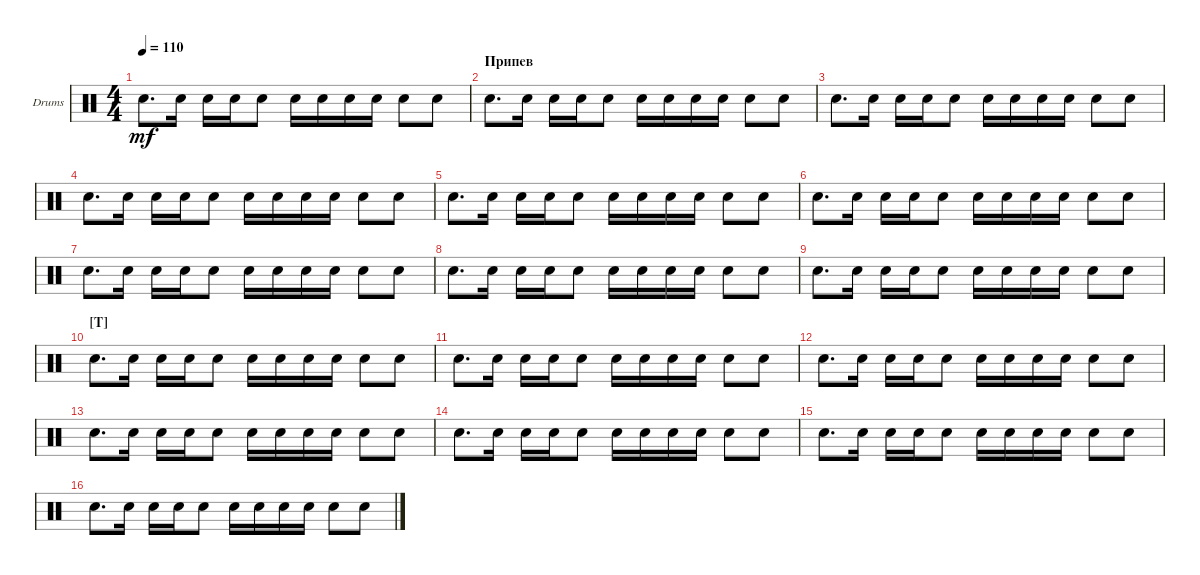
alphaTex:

\defaultSystemsLayout 4
\bracketExtendMode groupsimilarinstruments
\firstSystemTrackNameOrientation horizontal
\otherSystemsTrackNameOrientation horizontal
\track ("Drumkit" "Drums") {instrument percussion}
\staff {score}
\articulation defaults
\ts (4 4)
\tempo 110
\clef neutral
\ks c "Snare (hit) 2".8{d dy mf} "Snare (hit) 2".16 "Snare (hit) 2".16 "Snare (hit) 2".16 "Snare (hit) 2".8 "Snare (hit) 2".16 "Snare (hit) 2".16 "Snare (hit) 2".16 "Snare (hit) 2".16 "Snare (hit) 2".8 "Snare (hit) 2".8
|
\section ("" "Припев")
"Snare (hit) 2".8{d} "Snare (hit) 2".16 "Snare (hit) 2".16 "Snare (hit) 2".16 "Snare (hit) 2".8 "Snare (hit) 2".16 "Snare (hit) 2".16 "Snare (hit) 2".16 "Snare (hit) 2".16 "Snare (hit) 2".8 "Snare (hit) 2".8 |
"Snare (hit) 2".8{d} "Snare (hit) 2".16 "Snare (hit) 2".16 "Snare (hit) 2".16 "Snare (hit) 2".8 "Snare (hit) 2".16 "Snare (hit) 2".16 "Snare (hit) 2".16 "Snare (hit) 2".16 "Snare (hit) 2".8 "Snare (hit) 2".8 |
"Snare (hit) 2".8{d} "Snare (hit) 2".16 "Snare (hit) 2".16 "Snare (hit) 2".16 "Snare (hit) 2".8 "Snare (hit) 2".16 "Snare (hit) 2".16 "Snare (hit) 2".16 "Snare (hit) 2".16 "Snare (hit) 2".8 "Snare (hit) 2".8 |
"Snare (hit) 2".8{d} "Snare (hit) 2".16 "Snare (hit) 2".16 "Snare (hit) 2".16 "Snare (hit) 2".8 "Snare (hit) 2".16 "Snare (hit) 2".16 "Snare (hit) 2".16 "Snare (hit) 2".16 "Snare (hit) 2".8 "Snare (hit) 2".8 |
"Snare (hit) 2".8{d} "Snare (hit) 2".16 "Snare (hit) 2".16 "Snare (hit) 2".16 "Snare (hit) 2".8 "Snare (hit) 2".16 "Snare (hit) 2".16 "Snare (hit) 2".16 "Snare (hit) 2".16 "Snare (hit) 2".8 "Snare (hit) 2".8 |
"Snare (hit) 2".8{d} "Snare (hit) 2".16 "Snare (hit) 2".16 "Snare (hit) 2".16 "Snare (hit) 2".8 "Snare (hit) 2".16 "Snare (hit) 2".16 "Snare (hit) 2".16 "Snare (hit) 2".16 "Snare (hit) 2".8 "Snare (hit) 2".8 |
"Snare (hit) 2".8{d} "Snare (hit) 2".16 "Snare (hit) 2".16 "Snare (hit) 2".16 "Snare (hit) 2".8 "Snare (hit) 2".16 "Snare (hit) 2".16 "Snare (hit) 2".16 "Snare (hit) 2".16 "Snare (hit) 2".8 "Snare (hit) 2".8 |
"Snare (hit) 2".8{d} "Snare (hit) 2".16 "Snare (hit) 2".16 "Snare (hit) 2".16 "Snare (hit) 2".8 "Snare (hit) 2".16 "Snare (hit) 2".16 "Snare (hit) 2".16 "Snare (hit) 2".16 "Snare (hit) 2".8 "Snare (hit) 2".8 |
\section ("T" "")
"Snare (hit) 2".8{d} "Snare (hit) 2".16 "Snare (hit) 2".16 "Snare (hit) 2".16 "Snare (hit) 2".8 "Snare (hit) 2".16 "Snare (hit) 2".16 "Snare (hit) 2".16 "Snare (hit) 2".16 "Snare (hit) 2".8 "Snare (hit) 2".8 |
"Snare (hit) 2".8{d} "Snare (hit) 2".16 "Snare (hit) 2".16 "Snare (hit) 2".16 "Snare (hit) 2".8 "Snare (hit) 2".16 "Snare (hit) 2".16 "Snare (hit) 2".16 "Snare (hit) 2".16 "Snare (hit) 2".8 "Snare (hit) 2".8 |
"Snare (hit) 2".8{d} "Snare (hit) 2".16 "Snare (hit) 2".16 "Snare (hit) 2".16 "Snare (hit) 2".8 "Snare (hit) 2".16 "Snare (hit) 2".16 "Snare (hit) 2".16 "Snare (hit) 2".16 "Snare (hit) 2".8 "Snare (hit) 2".8 |
"Snare (hit) 2".8{d} "Snare (hit) 2".16 "Snare (hit) 2".16 "Snare (hit) 2".16 "Snare (hit) 2".8 "Snare (hit) 2".16 "Snare (hit) 2".16 "Snare (hit) 2".16 "Snare (hit) 2".16 "Snare (hit) 2".8 "Snare (hit) 2".8 |
"Snare (hit) 2".8{d} "Snare (hit) 2".16 "Snare (hit) 2".16 "Snare (hit) 2".16 "Snare (hit) 2".8 "Snare (hit) 2".16 "Snare (hit) 2".16 "Snare (hit) 2".16 "Snare (hit) 2".16 "Snare (hit) 2".8 "Snare (hit) 2".8 |
"Snare (hit) 2".8{d} "Snare (hit) 2".16 "Snare (hit) 2".16 "Snare (hit) 2".16 "Snare (hit) 2".8 "Snare (hit) 2".16 "Snare (hit) 2".16 "Snare (hit) 2".16 "Snare (hit) 2".16 "Snare (hit) 2".8 "Snare (hit) 2".8 |
"Snare (hit) 2".8{d} "Snare (hit) 2".16 "Snare (hit) 2".16 "Snare (hit) 2".16 "Snare (hit) 2".8 "Snare (hit) 2".16 "Snare (hit) 2".16 "Snare (hit) 2".16 "Snare (hit) 2".16 "Snare (hit) 2".8 "Snare (hit) 2".8
